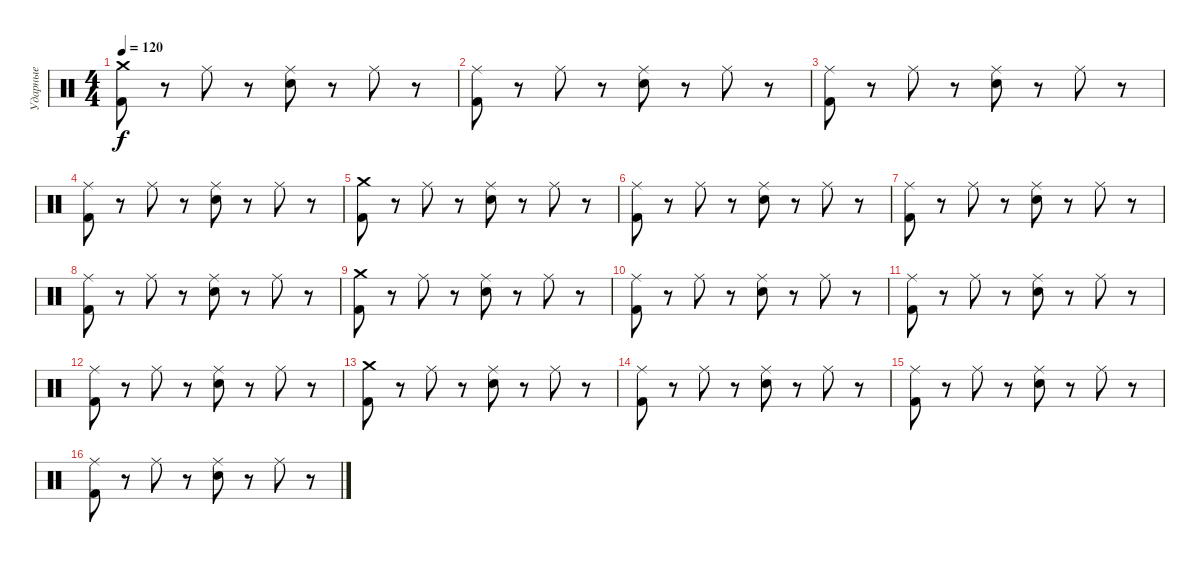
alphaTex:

\track ("Ударные" "Ударные") {instrument percussion}
\staff {score}
\articulation defaults
\ts (4 4)
\tempo 120
\clef neutral
\ks c
("Crash medium (hit)" "Kick (hit) 2").8{dy f} r.8 "Ride (middle)".8 r.8 ("Ride (middle)" "Electric Snare (hit)").8 r.8 "Ride (middle)".8 r.8 |
("Ride (middle)" "Kick (hit) 2").8 r.8 "Ride (middle)".8 r.8 ("Ride (middle)" "Electric Snare (hit)").8 r.8 "Ride (middle)".8 r.8 |
("Ride (middle)" "Kick (hit) 2").8 r.8 "Ride (middle)".8 r.8 ("Ride (middle)" "Electric Snare (hit)").8 r.8 "Ride (middle)".8 r.8 |
("Ride (middle)" "Kick (hit) 2").8 r.8 "Ride (middle)".8 r.8 ("Ride (middle)" "Electric Snare (hit)").8 r.8 "Ride (middle)".8 r.8 |
("Crash medium (hit)" "Kick (hit) 2").8 r.8 "Ride (middle)".8 r.8 ("Ride (middle)" "Electric Snare (hit)").8 r.8 "Ride (middle)".8 r.8 |
("Ride (middle)" "Kick (hit) 2").8 r.8 "Ride (middle)".8 r.8 ("Ride (middle)" "Electric Snare (hit)").8 r.8 "Ride (middle)".8 r.8 |
("Ride (middle)" "Kick (hit) 2").8 r.8 "Ride (middle)".8 r.8 ("Ride (middle)" "Electric Snare (hit)").8 r.8 "Ride (middle)".8 r.8 |
("Ride (middle)" "Kick (hit) 2").8 r.8 "Ride (middle)".8 r.8 ("Ride (middle)" "Electric Snare (hit)").8 r.8 "Ride (middle)".8 r.8 |
("Crash medium (hit)" "Kick (hit) 2").8 r.8 "Ride (middle)".8 r.8 ("Ride (middle)" "Electric Snare (hit)").8 r.8 "Ride (middle)".8 r.8 |
("Ride (middle)" "Kick (hit) 2").8 r.8 "Ride (middle)".8 r.8 ("Ride (middle)" "Electric Snare (hit)").8 r.8 "Ride (middle)".8 r.8 |
("Ride (middle)" "Kick (hit) 2").8 r.8 "Ride (middle)".8 r.8 ("Ride (middle)" "Electric Snare (hit)").8 r.8 "Ride (middle)".8 r.8 |
("Ride (middle)" "Kick (hit) 2").8 r.8 "Ride (middle)".8 r.8 ("Ride (middle)" "Electric Snare (hit)").8 r.8 "Ride (middle)".8 r.8 |
("Crash medium (hit)" "Kick (hit) 2").8 r.8 "Ride (middle)".8 r.8 ("Ride (middle)" "Electric Snare (hit)").8 r.8 "Ride (middle)".8 r.8 |
("Ride (middle)" "Kick (hit) 2").8 r.8 "Ride (middle)".8 r.8 ("Ride (middle)" "Electric Snare (hit)").8 r.8 "Ride (middle)".8 r.8 |
("Ride (middle)" "Kick (hit) 2").8 r.8 "Ride (middle)".8 r.8 ("Ride (middle)" "Electric Snare (hit)").8 r.8 "Ride (middle)".8 r.8 |
("Ride (middle)" "Kick (hit) 2").8 r.8 "Ride (middle)".8 r.8 ("Ride (middle)" "Electric Snare (hit)").8 r.8 "Ride (middle)".8 r.8
